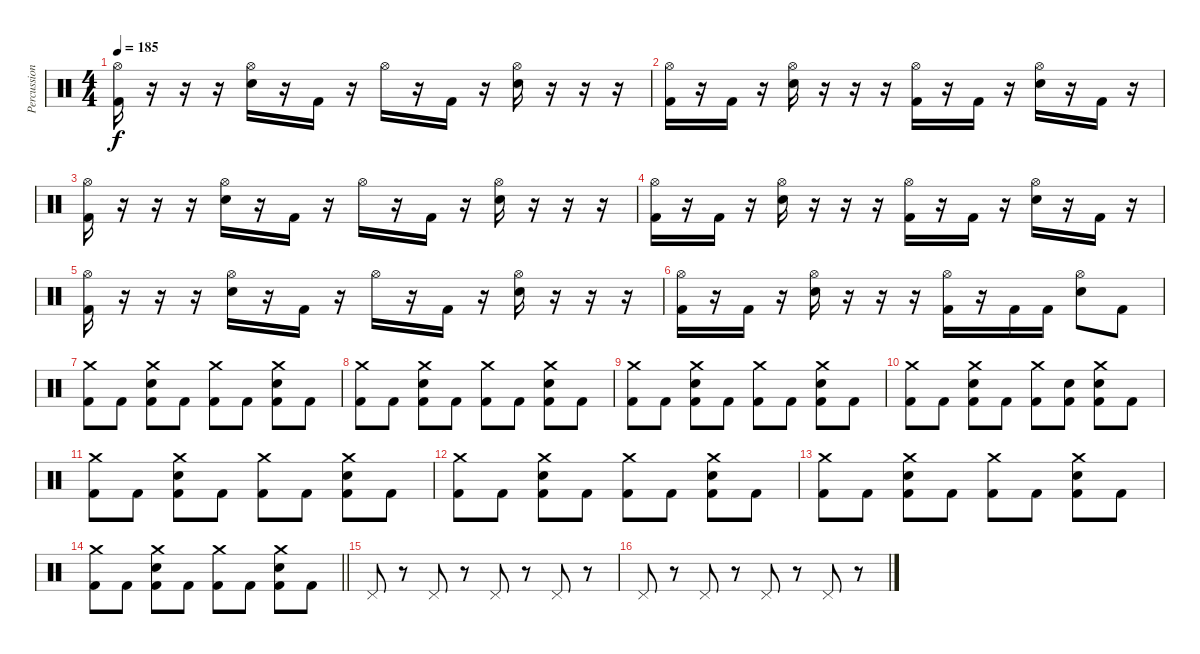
\track ("Percussion" "Percussion") {instrument percussion}
\staff {score}
\articulation defaults
\ts (4 4)
\tempo 185
\clef neutral
\ks c
("Hi-Hat (open)" "Kick (hit) 2").16{dy f} r.16 r.16 r.16 ("Hi-Hat (open)" "Electric Snare (hit)").16 r.16 "Kick (hit) 2".16 r.16 "Hi-Hat (open)".16 r.16 "Kick (hit) 2".16 r.16 ("Hi-Hat (open)" "Electric Snare (hit)").16 r.16 r.16 r.16 |
("Hi-Hat (open)" "Kick (hit) 2").16 r.16 "Kick (hit) 2".16 r.16 ("Hi-Hat (open)" "Electric Snare (hit)").16 r.16 r.16 r.16 ("Hi-Hat (open)" "Kick (hit) 2").16 r.16 "Kick (hit) 2".16 r.16 ("Hi-Hat (open)" "Electric Snare (hit)").16 r.16 "Kick (hit) 2".16 r.16 |
("Hi-Hat (open)" "Kick (hit) 2").16 r.16 r.16 r.16 ("Hi-Hat (open)" "Electric Snare (hit)").16 r.16 "Kick (hit) 2".16 r.16 "Hi-Hat (open)".16 r.16 "Kick (hit) 2".16 r.16 ("Hi-Hat (open)" "Electric Snare (hit)").16 r.16 r.16 r.16 |
("Hi-Hat (open)" "Kick (hit) 2").16 r.16 "Kick (hit) 2".16 r.16 ("Hi-Hat (open)" "Electric Snare (hit)").16 r.16 r.16 r.16 ("Hi-Hat (open)" "Kick (hit) 2").16 r.16 "Kick (hit) 2".16 r.16 ("Hi-Hat (open)" "Electric Snare (hit)").16 r.16 "Kick (hit) 2".16 r.16 |
("Hi-Hat (open)" "Kick (hit) 2").16 r.16 r.16 r.16 ("Hi-Hat (open)" "Electric Snare (hit)").16 r.16 "Kick (hit) 2".16 r.16 "Hi-Hat (open)".16 r.16 "Kick (hit) 2".16 r.16 ("Hi-Hat (open)" "Electric Snare (hit)").16 r.16 r.16 r.16 |
("Hi-Hat (open)" "Kick (hit) 2").16 r.16 "Kick (hit) 2".16 r.16 ("Hi-Hat (open)" "Electric Snare (hit)").16 r.16 r.16 r.16 ("Hi-Hat (open)" "Kick (hit) 2").16 r.16 "Kick (hit) 2".16 "Kick (hit) 2".16 ("Hi-Hat (open)" "Electric Snare (hit)").8 "Kick (hit) 2".8 |
("Crash medium (hit)" "Kick (hit) 2").8 "Kick (hit) 2".8 ("Crash medium (hit)" "Electric Snare (hit)" "Kick (hit) 2").8 "Kick (hit) 2".8 ("Crash medium (hit)" "Kick (hit) 2").8 "Kick (hit) 2".8 ("Crash medium (hit)" "Electric Snare (hit)" "Kick (hit) 2").8 "Kick (hit) 2".8 |
("Crash medium (hit)" "Kick (hit) 2").8 "Kick (hit) 2".8 ("Crash medium (hit)" "Electric Snare (hit)" "Kick (hit) 2").8 "Kick (hit) 2".8 ("Crash medium (hit)" "Kick (hit) 2").8 "Kick (hit) 2".8 ("Crash medium (hit)" "Electric Snare (hit)" "Kick (hit) 2").8 "Kick (hit) 2".8 |
("Crash medium (hit)" "Kick (hit) 2").8 "Kick (hit) 2".8 ("Crash medium (hit)" "Electric Snare (hit)" "Kick (hit) 2").8 "Kick (hit) 2".8 ("Crash medium (hit)" "Kick (hit) 2").8 "Kick (hit) 2".8 ("Crash medium (hit)" "Electric Snare (hit)" "Kick (hit) 2").8 "Kick (hit) 2".8 |
("Crash medium (hit)" "Kick (hit) 2").8 "Kick (hit) 2".8 ("Crash medium (hit)" "Electric Snare (hit)" "Kick (hit) 2").8 "Kick (hit) 2".8 ("Crash medium (hit)" "Kick (hit) 2").8 ("Electric Snare (hit)" "Kick (hit) 2").8 ("Crash medium (hit)" "Electric Snare (hit)" "Kick (hit) 2").8 "Kick (hit) 2".8 |
("Crash medium (hit)" "Kick (hit) 2").8 "Kick (hit) 2".8 ("Crash medium (hit)" "Electric Snare (hit)" "Kick (hit) 2").8 "Kick (hit) 2".8 ("Crash medium (hit)" "Kick (hit) 2").8 "Kick (hit) 2".8 ("Crash medium (hit)" "Electric Snare (hit)" "Kick (hit) 2").8 "Kick (hit) 2".8 |
("Crash medium (hit)" "Kick (hit) 2").8 "Kick (hit) 2".8 ("Crash medium (hit)" "Electric Snare (hit)" "Kick (hit) 2").8 "Kick (hit) 2".8 ("Crash medium (hit)" "Kick (hit) 2").8 "Kick (hit) 2".8 ("Crash medium (hit)" "Electric Snare (hit)" "Kick (hit) 2").8 "Kick (hit) 2".8 |
("Crash medium (hit)" "Kick (hit) 2").8 "Kick (hit) 2".8 ("Crash medium (hit)" "Electric Snare (hit)" "Kick (hit) 2").8 "Kick (hit) 2".8 ("Crash medium (hit)" "Kick (hit) 2").8 "Kick (hit) 2".8 ("Crash medium (hit)" "Electric Snare (hit)" "Kick (hit) 2").8 "Kick (hit) 2".8 |
\barLineRight lightlight
("Crash medium (hit)" "Kick (hit) 2").8 "Kick (hit) 2".8 ("Crash medium (hit)" "Electric Snare (hit)" "Kick (hit) 2").8 "Kick (hit) 2".8 ("Crash medium (hit)" "Kick (hit) 2").8 "Kick (hit) 2".8 ("Crash medium (hit)" "Electric Snare (hit)" "Kick (hit) 2").8 "Kick (hit) 2".8 |
"Pedal Hi-Hat (hit)".8 r.8 "Pedal Hi-Hat (hit)".8 r.8 "Pedal Hi-Hat (hit)".8 r.8 "Pedal Hi-Hat (hit)".8 r.8 |
"Pedal Hi-Hat (hit)".8 r.8 "Pedal Hi-Hat (hit)".8 r.8 "Pedal Hi-Hat (hit)".8 r.8 "Pedal Hi-Hat (hit)".8 r.8
